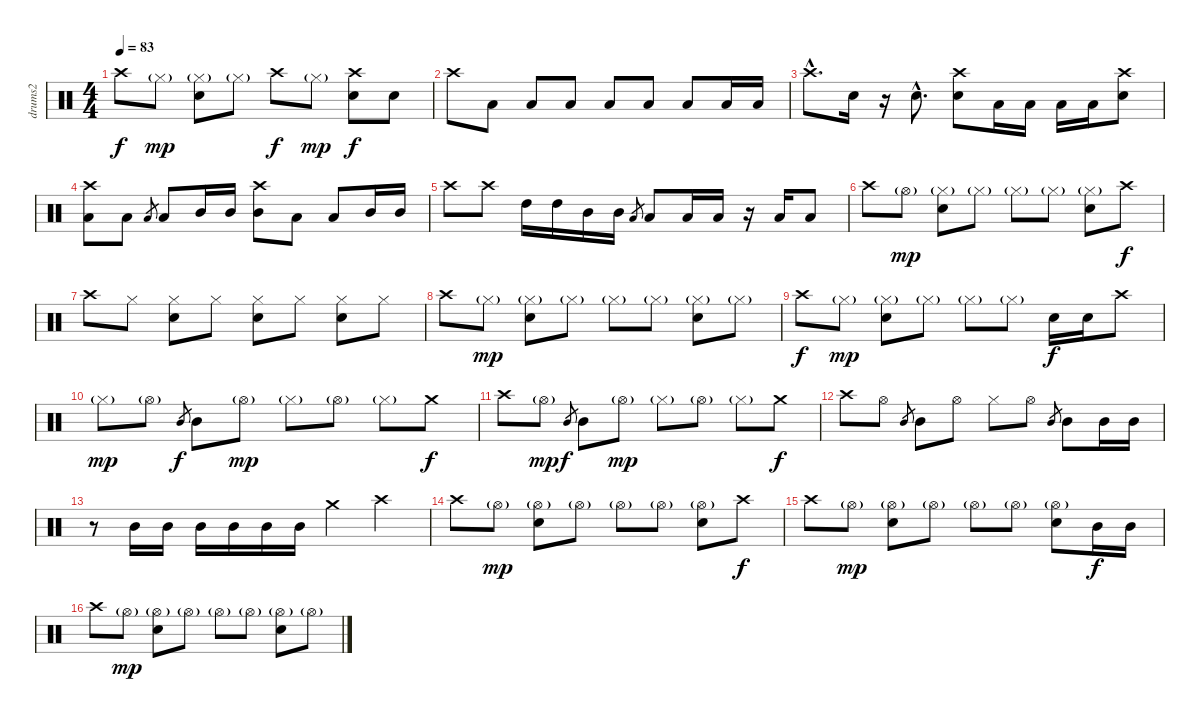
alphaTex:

\track ("drums2" "drums2") {instrument percussion}
\staff {score}
\articulation defaults
\ts (4 4)
\tempo 83
\clef neutral
\ks c "Crash high (hit)".8{dy f} "Hi-Hat (closed)"{g}.8{dy mp}
("Hi-Hat (closed)"{g} "Snare (hit) 2").8 "Hi-Hat (closed)"{g}.8 "Crash high (hit)".8{dy f} "Hi-Hat (closed)"{g}.8{dy mp} ("Crash high (hit)" "Snare (hit) 2").8{dy f} "Snare (hit) 2".8 |
"Crash high (hit)".8 "Low Tom (hit)".8 "Low Tom (hit)".8 "Low Tom (hit)".8 "Low Tom (hit)".8 "Low Tom (hit)".8 "Low Tom (hit)".8 "Low Tom (hit)".16 "Low Tom (hit)".16 |
"Crash high (hit)"{hac}.8{d} "Snare (hit) 2".16 r.16 "Snare (hit) 2"{hac}.8{d} ("Crash high (hit)" "Snare (hit) 2").8 "Low Tom (hit)".16 "Low Tom (hit)".16 "Low Tom (hit)".16 "Low Tom (hit)".16 ("Crash high (hit)" "Snare (hit) 2").8 |
("Crash high (hit)" "Low Tom (hit)").8 "Low Tom (hit)".8 "Low Tom (hit)".8{gr} "Low Tom (hit)".8 "Mid Tom (hit)".16 "Mid Tom (hit)".16 ("Crash high (hit)" "Mid Tom (hit)").8 "Low Tom (hit)".8 "Low Tom (hit)".8 "Mid Tom (hit)".16 "Mid Tom (hit)".16 |
"Crash high (hit)".8 "Crash high (hit)".8 "High Tom (hit)".16 "High Tom (hit)".16 "Mid Tom (hit)".16 "Mid Tom (hit)".16 "Low Tom (hit)".8{gr} "Low Tom (hit)".8 "Low Tom (hit)".16 "Low Tom (hit)".16 r.16 "Low Floor Tom (hit)".16 "Low Floor Tom (hit)".8 |
"Crash high (hit)".8 "Hi-Hat (open)"{g}.8{dy mp} ("Hi-Hat (closed)"{g} "Snare (hit) 2").8 "Hi-Hat (closed)"{g}.8 "Hi-Hat (closed)"{g}.8 "Hi-Hat (closed)"{g}.8 ("Hi-Hat (closed)"{g} "Snare (hit) 2").8 "Crash high (hit)".8{dy f} |
"Crash high (hit)".8 "Hi-Hat (closed)".8 ("Hi-Hat (closed)" "Snare (hit) 2").8 "Hi-Hat (closed)".8 ("Hi-Hat (closed)" "Snare (hit) 2").8 "Hi-Hat (closed)".8 ("Hi-Hat (closed)" "Snare (hit) 2").8 "Hi-Hat (closed)".8 |
"Crash high (hit)".8 "Hi-Hat (closed)"{g}.8{dy mp} ("Hi-Hat (closed)"{g} "Snare (hit) 2").8 "Hi-Hat (closed)"{g}.8 "Hi-Hat (closed)"{g}.8 "Hi-Hat (closed)"{g}.8 ("Hi-Hat (closed)"{g} "Snare (hit) 2").8 "Hi-Hat (closed)"{g}.8 |
"Crash high (hit)".8{dy f} "Hi-Hat (closed)"{g}.8{dy mp} ("Hi-Hat (closed)"{g} "Snare (hit) 2").8 "Hi-Hat (closed)"{g}.8 "Hi-Hat (closed)"{g}.8 "Hi-Hat (closed)"{g}.8 "Snare (hit) 2".16{dy f} "Snare (hit) 2".16 "Crash high (hit)".8 |
"Hi-Hat (closed)"{g}.8{dy mp} "Hi-Hat (open)"{g}.8 "Mid Tom (hit)".8{gr dy f} "Mid Tom (hit)".8 "Hi-Hat (open)"{g}.8{dy mp} "Hi-Hat (closed)"{g}.8 "Hi-Hat (open)"{g}.8 "Hi-Hat (closed)"{g}.8 "Crash medium (hit)".8{dy f} |
"Crash high (hit)".8 "Hi-Hat (open)"{g}.8{dy mp} "Mid Tom (hit)".8{gr dy f} "Mid Tom (hit)".8 "Hi-Hat (open)"{g}.8{dy mp} "Hi-Hat (closed)"{g}.8 "Hi-Hat (open)"{g}.8 "Hi-Hat (closed)"{g}.8 "Crash medium (hit)".8{dy f} |
"Crash high (hit)".8 "Hi-Hat (open)".8 "Mid Tom (hit)".8{gr} "Mid Tom (hit)".8 "Hi-Hat (open)".8 "Hi-Hat (closed)".8 "Hi-Hat (open)".8 "Mid Tom (hit)".8{gr} "Mid Tom (hit)".8 "Mid Tom (hit)".16 "Mid Tom (hit)".16 |
r.8 "Mid Tom (hit)".16 "Mid Tom (hit)".16 "Mid Tom (hit)".16 "Mid Tom (hit)".16 "Mid Tom (hit)".16 "Mid Tom (hit)".16 "Crash medium (hit)".4 "Crash high (hit)".4 |
"Crash high (hit)".8 "Hi-Hat (open)"{g}.8{dy mp} ("Hi-Hat (open)"{g} "Snare (hit) 2").8 "Hi-Hat (open)"{g}.8 "Hi-Hat (open)"{g}.8 "Hi-Hat (open)"{g}.8 ("Hi-Hat (open)"{g} "Snare (hit) 2").8 "Crash high (hit)".8{dy f} |
"Crash high (hit)".8 "Hi-Hat (open)"{g}.8{dy mp} ("Hi-Hat (open)"{g} "Snare (hit) 2").8 "Hi-Hat (open)"{g}.8 "Hi-Hat (open)"{g}.8 "Hi-Hat (open)"{g}.8 ("Hi-Hat (open)"{g} "Snare (hit) 2").8 "Mid Tom (hit)".16{dy f} "Mid Tom (hit)".16 |
"Crash high (hit)".8 "Hi-Hat (open)"{g}.8{dy mp} ("Hi-Hat (open)"{g} "Snare (hit) 2").8 "Hi-Hat (open)"{g}.8 "Hi-Hat (open)"{g}.8 "Hi-Hat (open)"{g}.8 ("Hi-Hat (open)"{g} "Snare (hit) 2").8 "Hi-Hat (open)"{g}.8
